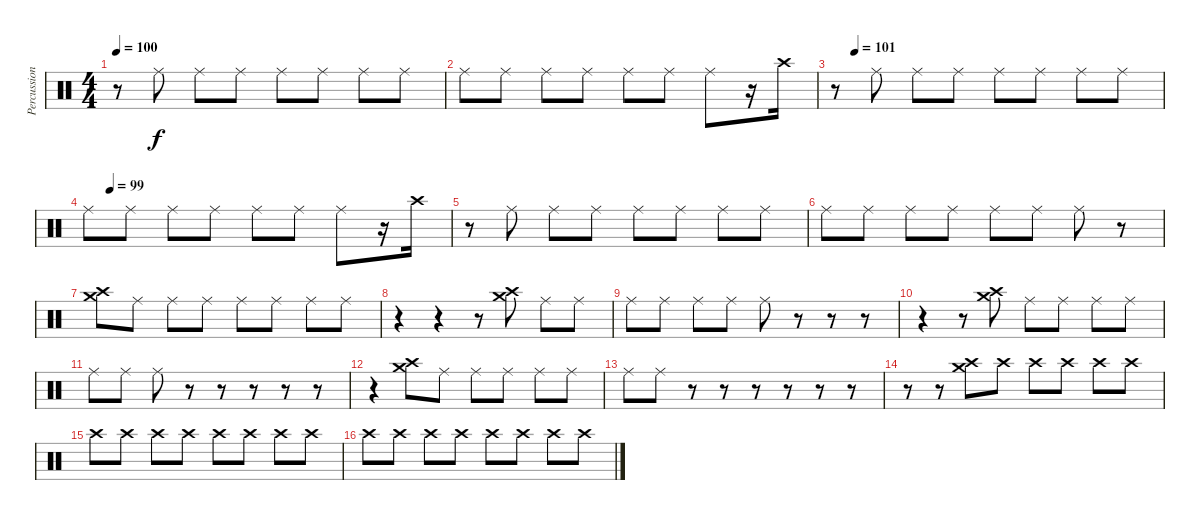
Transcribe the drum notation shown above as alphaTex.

\track ("Percussion2" "Percussion") {instrument percussion}
\staff {score}
\articulation defaults
\ts (4 4)
\tempo 100
\clef neutral
\ks c
r.8{dy f} "Ride (middle)".8 "Ride (middle)".8 "Ride (middle)".8 "Ride (middle)".8 "Ride (middle)".8 "Ride (middle)".8 "Ride (middle)".8 |
"Ride (middle)".8 "Ride (middle)".8 "Ride (middle)".8 "Ride (middle)".8 "Ride (middle)".8 "Ride (middle)".8 "Ride (middle)".8 r.16 "Crash high (hit)".16 |
\tempo (101 0.0625)
r.8 "Ride (middle)".8 "Ride (middle)".8 "Ride (middle)".8 "Ride (middle)".8 "Ride (middle)".8 "Ride (middle)".8 "Ride (middle)".8 |
\tempo (99 0.0625)
"Ride (middle)".8 "Ride (middle)".8 "Ride (middle)".8 "Ride (middle)".8 "Ride (middle)".8 "Ride (middle)".8 "Ride (middle)".8 r.16 "Crash high (hit)".16 |
r.8 "Ride (middle)".8 "Ride (middle)".8 "Ride (middle)".8 "Ride (middle)".8 "Ride (middle)".8 "Ride (middle)".8 "Ride (middle)".8 |
"Ride (middle)".8 "Ride (middle)".8 "Ride (middle)".8 "Ride (middle)".8 "Ride (middle)".8 "Ride (middle)".8 "Ride (middle)".8 r.8 |
("Crash high (hit)" "Crash medium (hit)").8 "Ride (middle)".8 "Ride (middle)".8 "Ride (middle)".8 "Ride (middle)".8 "Ride (middle)".8 "Ride (middle)".8 "Ride (middle)".8 |
r.4 r.4 r.8 ("Crash high (hit)" "Crash medium (hit)").8 "Ride (middle)".8 "Ride (middle)".8 |
"Ride (middle)".8 "Ride (middle)".8 "Ride (middle)".8 "Ride (middle)".8 "Ride (middle)".8 r.8 r.8 r.8 |
r.4 r.8 ("Crash high (hit)" "Crash medium (hit)").8 "Ride (middle)".8 "Ride (middle)".8 "Ride (middle)".8 "Ride (middle)".8 |
"Ride (middle)".8 "Ride (middle)".8 "Ride (middle)".8 r.8 r.8 r.8 r.8 r.8 |
r.4 ("Crash high (hit)" "Crash medium (hit)").8 "Ride (middle)".8 "Ride (middle)".8 "Ride (middle)".8 "Ride (middle)".8 "Ride (middle)".8 |
"Ride (middle)".8 "Ride (middle)".8 r.8 r.8 r.8 r.8 r.8 r.8 |
r.8 r.8 ("Crash high (hit)" "Crash medium (hit)").8 "Crash high (hit)".8 "Crash high (hit)".8 "Crash high (hit)".8 "Crash high (hit)".8 "Crash high (hit)".8 |
"Crash high (hit)".8 "Crash high (hit)".8 "Crash high (hit)".8 "Crash high (hit)".8 "Crash high (hit)".8 "Crash high (hit)".8 "Crash high (hit)".8 "Crash high (hit)".8 |
"Crash high (hit)".8 "Crash high (hit)".8 "Crash high (hit)".8 "Crash high (hit)".8 "Crash high (hit)".8 "Crash high (hit)".8 "Crash high (hit)".8 "Crash high (hit)".8
